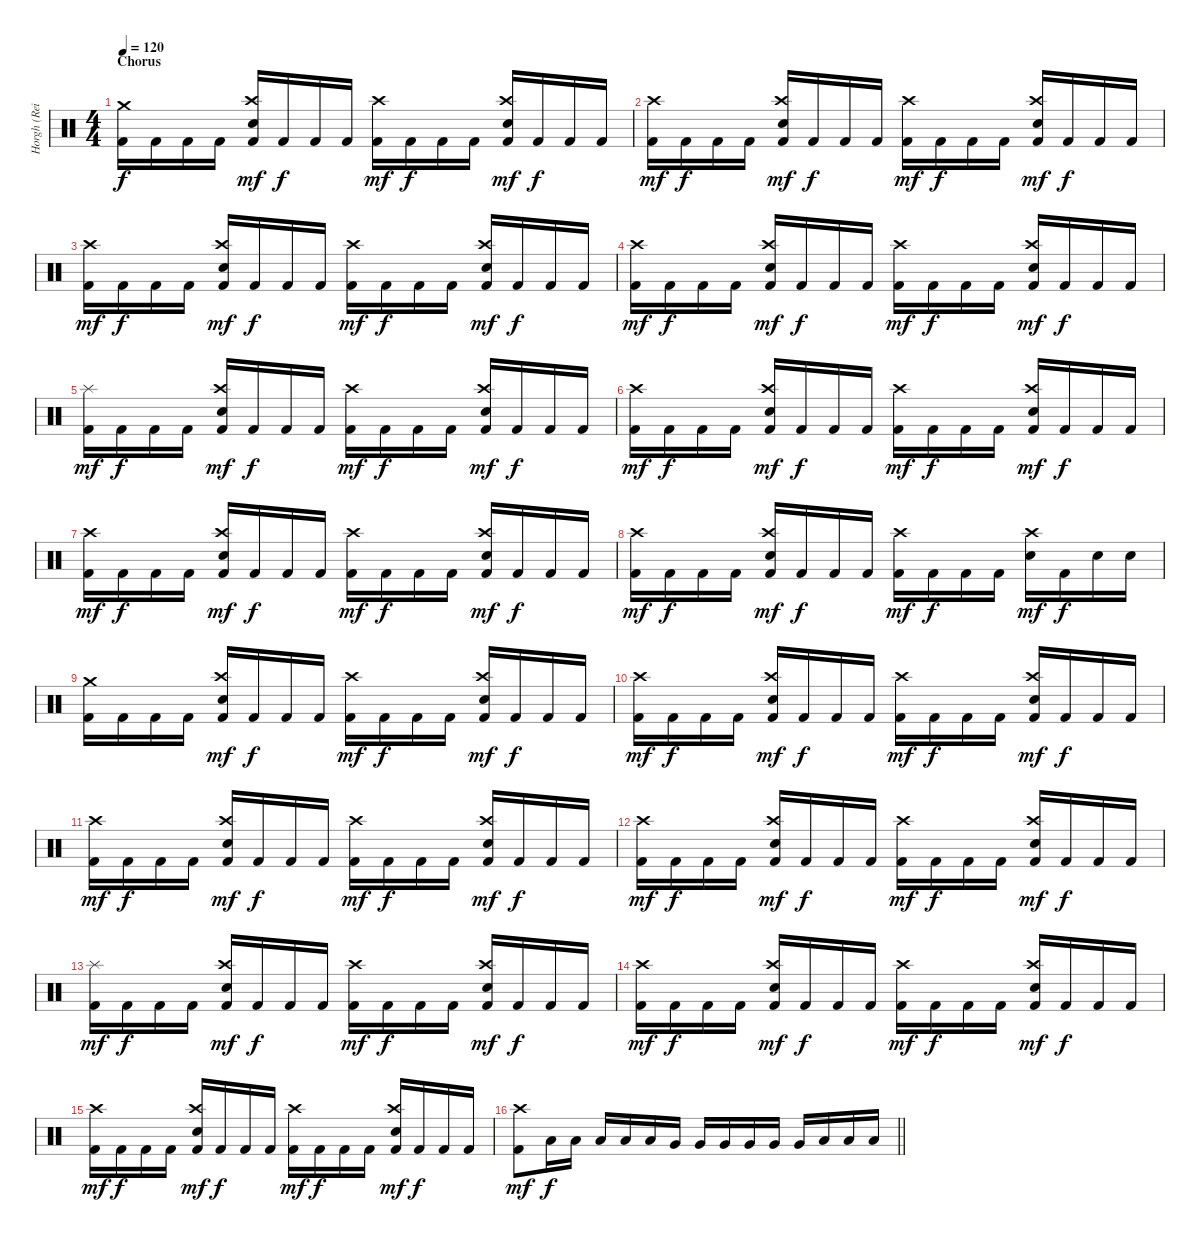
\track ("Horgh (Reidar Horghagen)" "Horgh (Rei") {instrument percussion}
\staff {score}
\articulation defaults
\ts (4 4)
\section ("" "Chorus")
\tempo 120
\clef neutral
\ks c
("Crash medium (hit)" "Kick (hit) 2").16{dy f} "Kick (hit) 2".16 "Kick (hit) 2".16 "Kick (hit) 2".16 ("Crash high (hit)" "Snare (hit) 2" "Kick (hit) 2").16{dy mf} "Kick (hit) 2".16{dy f} "Kick (hit) 2".16 "Kick (hit) 2".16 ("Crash high (hit)" "Kick (hit) 2").16{dy mf} "Kick (hit) 2".16{dy f} "Kick (hit) 2".16 "Kick (hit) 2".16 ("Crash high (hit)" "Snare (hit) 2" "Kick (hit) 2").16{dy mf} "Kick (hit) 2".16{dy f} "Kick (hit) 2".16 "Kick (hit) 2".16 |
("Crash high (hit)" "Kick (hit) 2").16{dy mf} "Kick (hit) 2".16{dy f} "Kick (hit) 2".16 "Kick (hit) 2".16 ("Crash high (hit)" "Snare (hit) 2" "Kick (hit) 2").16{dy mf} "Kick (hit) 2".16{dy f} "Kick (hit) 2".16 "Kick (hit) 2".16 ("Crash high (hit)" "Kick (hit) 2").16{dy mf} "Kick (hit) 2".16{dy f} "Kick (hit) 2".16 "Kick (hit) 2".16 ("Crash high (hit)" "Snare (hit) 2" "Kick (hit) 2").16{dy mf} "Kick (hit) 2".16{dy f} "Kick (hit) 2".16 "Kick (hit) 2".16 |
("Crash high (hit)" "Kick (hit) 2").16{dy mf} "Kick (hit) 2".16{dy f} "Kick (hit) 2".16 "Kick (hit) 2".16 ("Crash high (hit)" "Snare (hit) 2" "Kick (hit) 2").16{dy mf} "Kick (hit) 2".16{dy f} "Kick (hit) 2".16 "Kick (hit) 2".16 ("Crash high (hit)" "Kick (hit) 2").16{dy mf} "Kick (hit) 2".16{dy f} "Kick (hit) 2".16 "Kick (hit) 2".16 ("Crash high (hit)" "Snare (hit) 2" "Kick (hit) 2").16{dy mf} "Kick (hit) 2".16{dy f} "Kick (hit) 2".16 "Kick (hit) 2".16 |
("Crash high (hit)" "Kick (hit) 2").16{dy mf} "Kick (hit) 2".16{dy f} "Kick (hit) 2".16 "Kick (hit) 2".16 ("Crash high (hit)" "Snare (hit) 2" "Kick (hit) 2").16{dy mf} "Kick (hit) 2".16{dy f} "Kick (hit) 2".16 "Kick (hit) 2".16 ("Crash high (hit)" "Kick (hit) 2").16{dy mf} "Kick (hit) 2".16{dy f} "Kick (hit) 2".16 "Kick (hit) 2".16 ("Crash high (hit)" "Snare (hit) 2" "Kick (hit) 2").16{dy mf} "Kick (hit) 2".16{dy f} "Kick (hit) 2".16 "Kick (hit) 2".16 |
("Splash (hit)" "Kick (hit) 2").16{dy mf} "Kick (hit) 2".16{dy f} "Kick (hit) 2".16 "Kick (hit) 2".16 ("Crash high (hit)" "Snare (hit) 2" "Kick (hit) 2").16{dy mf} "Kick (hit) 2".16{dy f} "Kick (hit) 2".16 "Kick (hit) 2".16 ("Crash high (hit)" "Kick (hit) 2").16{dy mf} "Kick (hit) 2".16{dy f} "Kick (hit) 2".16 "Kick (hit) 2".16 ("Crash high (hit)" "Snare (hit) 2" "Kick (hit) 2").16{dy mf} "Kick (hit) 2".16{dy f} "Kick (hit) 2".16 "Kick (hit) 2".16 |
("Crash high (hit)" "Kick (hit) 2").16{dy mf} "Kick (hit) 2".16{dy f} "Kick (hit) 2".16 "Kick (hit) 2".16 ("Crash high (hit)" "Snare (hit) 2" "Kick (hit) 2").16{dy mf} "Kick (hit) 2".16{dy f} "Kick (hit) 2".16 "Kick (hit) 2".16 ("Crash high (hit)" "Kick (hit) 2").16{dy mf} "Kick (hit) 2".16{dy f} "Kick (hit) 2".16 "Kick (hit) 2".16 ("Crash high (hit)" "Snare (hit) 2" "Kick (hit) 2").16{dy mf} "Kick (hit) 2".16{dy f} "Kick (hit) 2".16 "Kick (hit) 2".16 |
("Crash high (hit)" "Kick (hit) 2").16{dy mf} "Kick (hit) 2".16{dy f} "Kick (hit) 2".16 "Kick (hit) 2".16 ("Crash high (hit)" "Snare (hit) 2" "Kick (hit) 2").16{dy mf} "Kick (hit) 2".16{dy f} "Kick (hit) 2".16 "Kick (hit) 2".16 ("Crash high (hit)" "Kick (hit) 2").16{dy mf} "Kick (hit) 2".16{dy f} "Kick (hit) 2".16 "Kick (hit) 2".16 ("Crash high (hit)" "Snare (hit) 2" "Kick (hit) 2").16{dy mf} "Kick (hit) 2".16{dy f} "Kick (hit) 2".16 "Kick (hit) 2".16 |
("Crash high (hit)" "Kick (hit) 2").16{dy mf} "Kick (hit) 2".16{dy f} "Kick (hit) 2".16 "Kick (hit) 2".16 ("Crash high (hit)" "Snare (hit) 2" "Kick (hit) 2").16{dy mf} "Kick (hit) 2".16{dy f} "Kick (hit) 2".16 "Kick (hit) 2".16 ("Crash high (hit)" "Kick (hit) 2").16{dy mf} "Kick (hit) 2".16{dy f} "Kick (hit) 2".16 "Kick (hit) 2".16 ("Crash high (hit)" "Snare (hit) 2").16{dy mf} "Kick (hit) 2".16{dy f} "Snare (hit) 2".16 "Snare (hit) 2".16 |
("Crash medium (hit)" "Kick (hit) 2").16 "Kick (hit) 2".16 "Kick (hit) 2".16 "Kick (hit) 2".16 ("Crash high (hit)" "Snare (hit) 2" "Kick (hit) 2").16{dy mf} "Kick (hit) 2".16{dy f} "Kick (hit) 2".16 "Kick (hit) 2".16 ("Crash high (hit)" "Kick (hit) 2").16{dy mf} "Kick (hit) 2".16{dy f} "Kick (hit) 2".16 "Kick (hit) 2".16 ("Crash high (hit)" "Snare (hit) 2" "Kick (hit) 2").16{dy mf} "Kick (hit) 2".16{dy f} "Kick (hit) 2".16 "Kick (hit) 2".16 |
("Crash high (hit)" "Kick (hit) 2").16{dy mf} "Kick (hit) 2".16{dy f} "Kick (hit) 2".16 "Kick (hit) 2".16 ("Crash high (hit)" "Snare (hit) 2" "Kick (hit) 2").16{dy mf} "Kick (hit) 2".16{dy f} "Kick (hit) 2".16 "Kick (hit) 2".16 ("Crash high (hit)" "Kick (hit) 2").16{dy mf} "Kick (hit) 2".16{dy f} "Kick (hit) 2".16 "Kick (hit) 2".16 ("Crash high (hit)" "Snare (hit) 2" "Kick (hit) 2").16{dy mf} "Kick (hit) 2".16{dy f} "Kick (hit) 2".16 "Kick (hit) 2".16 |
("Crash high (hit)" "Kick (hit) 2").16{dy mf} "Kick (hit) 2".16{dy f} "Kick (hit) 2".16 "Kick (hit) 2".16 ("Crash high (hit)" "Snare (hit) 2" "Kick (hit) 2").16{dy mf} "Kick (hit) 2".16{dy f} "Kick (hit) 2".16 "Kick (hit) 2".16 ("Crash high (hit)" "Kick (hit) 2").16{dy mf} "Kick (hit) 2".16{dy f} "Kick (hit) 2".16 "Kick (hit) 2".16 ("Crash high (hit)" "Snare (hit) 2" "Kick (hit) 2").16{dy mf} "Kick (hit) 2".16{dy f} "Kick (hit) 2".16 "Kick (hit) 2".16 |
("Crash high (hit)" "Kick (hit) 2").16{dy mf} "Kick (hit) 2".16{dy f} "Kick (hit) 2".16 "Kick (hit) 2".16 ("Crash high (hit)" "Snare (hit) 2" "Kick (hit) 2").16{dy mf} "Kick (hit) 2".16{dy f} "Kick (hit) 2".16 "Kick (hit) 2".16 ("Crash high (hit)" "Kick (hit) 2").16{dy mf} "Kick (hit) 2".16{dy f} "Kick (hit) 2".16 "Kick (hit) 2".16 ("Crash high (hit)" "Snare (hit) 2" "Kick (hit) 2").16{dy mf} "Kick (hit) 2".16{dy f} "Kick (hit) 2".16 "Kick (hit) 2".16 |
("Splash (hit)" "Kick (hit) 2").16{dy mf} "Kick (hit) 2".16{dy f} "Kick (hit) 2".16 "Kick (hit) 2".16 ("Crash high (hit)" "Snare (hit) 2" "Kick (hit) 2").16{dy mf} "Kick (hit) 2".16{dy f} "Kick (hit) 2".16 "Kick (hit) 2".16 ("Crash high (hit)" "Kick (hit) 2").16{dy mf} "Kick (hit) 2".16{dy f} "Kick (hit) 2".16 "Kick (hit) 2".16 ("Crash high (hit)" "Snare (hit) 2" "Kick (hit) 2").16{dy mf} "Kick (hit) 2".16{dy f} "Kick (hit) 2".16 "Kick (hit) 2".16 |
("Crash high (hit)" "Kick (hit) 2").16{dy mf} "Kick (hit) 2".16{dy f} "Kick (hit) 2".16 "Kick (hit) 2".16 ("Crash high (hit)" "Snare (hit) 2" "Kick (hit) 2").16{dy mf} "Kick (hit) 2".16{dy f} "Kick (hit) 2".16 "Kick (hit) 2".16 ("Crash high (hit)" "Kick (hit) 2").16{dy mf} "Kick (hit) 2".16{dy f} "Kick (hit) 2".16 "Kick (hit) 2".16 ("Crash high (hit)" "Snare (hit) 2" "Kick (hit) 2").16{dy mf} "Kick (hit) 2".16{dy f} "Kick (hit) 2".16 "Kick (hit) 2".16 |
("Crash high (hit)" "Kick (hit) 2").16{dy mf} "Kick (hit) 2".16{dy f} "Kick (hit) 2".16 "Kick (hit) 2".16 ("Crash high (hit)" "Snare (hit) 2" "Kick (hit) 2").16{dy mf} "Kick (hit) 2".16{dy f} "Kick (hit) 2".16 "Kick (hit) 2".16 ("Crash high (hit)" "Kick (hit) 2").16{dy mf} "Kick (hit) 2".16{dy f} "Kick (hit) 2".16 "Kick (hit) 2".16 ("Crash high (hit)" "Snare (hit) 2" "Kick (hit) 2").16{dy mf} "Kick (hit) 2".16{dy f} "Kick (hit) 2".16 "Kick (hit) 2".16 |
\barLineRight lightlight
("Crash high (hit)" "Kick (hit) 2").8{dy mf} "Low Tom (hit)".16{dy f} "Low Tom (hit)".16 "Low Tom (hit)".16 "Low Tom (hit)".16 "Low Tom (hit)".16 "Very Low Tom (hit)".16 "Very Low Tom (hit)".16 "Very Low Tom (hit)".16 "Very Low Tom (hit)".16 "Very Low Tom (hit)".16 "Very Low Tom (hit)".16 "Low Floor Tom (hit)".16 "Low Floor Tom (hit)".16 "Low Floor Tom (hit)".16
